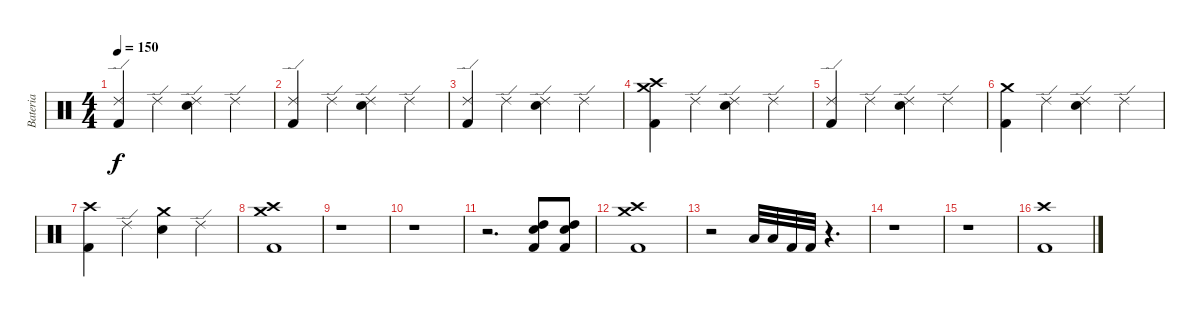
\track ("Bateria" "Bateria") {instrument percussion}
\staff {score}
\articulation defaults
\ts (4 4)
\tempo 150
\clef neutral
\ks c
("Ride (edge) 2" "Kick (hit) 2").4{dy f} "Ride (edge) 2".4 ("Ride (edge) 2" "Snare (hit) 2").4 "Ride (edge) 2".4 |
("Ride (edge) 2" "Kick (hit) 2").4 "Ride (edge) 2".4 ("Ride (edge) 2" "Snare (hit) 2").4 "Ride (edge) 2".4 |
("Ride (edge) 2" "Kick (hit) 2").4 "Ride (edge) 2".4 ("Ride (edge) 2" "Snare (hit) 2").4 "Ride (edge) 2".4 |
("Crash high (hit)" "Crash medium (hit)" "Kick (hit) 2").4 "Ride (edge) 2".4 ("Ride (edge) 2" "Snare (hit) 2").4 "Ride (edge) 2".4 |
("Ride (edge) 2" "Kick (hit) 2").4 "Ride (edge) 2".4 ("Ride (edge) 2" "Snare (hit) 2").4 "Ride (edge) 2".4 |
("Crash medium (hit)" "Kick (hit) 2").4 "Ride (edge) 2".4 ("Ride (edge) 2" "Snare (hit) 2").4 "Ride (edge) 2".4 |
("Crash high (hit)" "Kick (hit) 2").4 "Ride (edge) 2".4 ("Crash medium (hit)" "Snare (hit) 2").4 "Ride (edge) 2".4 |
("Crash medium (hit)" "Crash high (hit)" "Kick (hit) 2").1 |
r.1 |
r.1 |
r.2{d} ("High Tom (hit)" "Snare (hit) 2" "Kick (hit) 2").8 ("High Tom (hit)" "Snare (hit) 2" "Kick (hit) 2").8 |
("Crash medium (hit)" "Crash high (hit)" "Kick (hit) 2").1 |
r.2 "Low Tom (hit)".32 "Low Tom (hit)".32 "Kick (hit) 2".32 "Kick (hit) 2".32 r.4{d} |
r.1 |
r.1 |
("Crash high (hit)" "Kick (hit) 2").1
